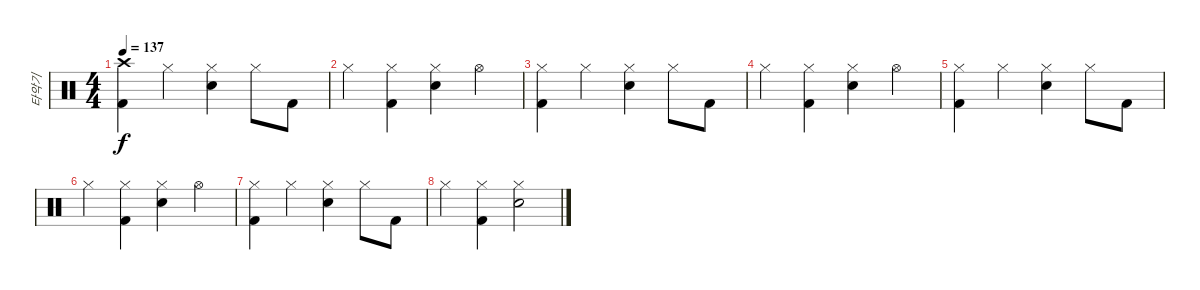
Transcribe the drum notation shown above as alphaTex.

\track ("타악기" "타악기") {instrument percussion}
\staff {score}
\articulation defaults
\ts (4 4)
\tempo 137
\clef neutral
\ks c
("Crash high (hit)" "Kick (hit) 2").4{dy f} "Hi-Hat (closed)".4 ("Hi-Hat (closed)" "Electric Snare (hit)").4 "Hi-Hat (closed)".8 "Kick (hit) 2".8 |
"Hi-Hat (closed)".4 ("Hi-Hat (closed)" "Kick (hit) 2").4 ("Hi-Hat (closed)" "Electric Snare (hit)").4 "Hi-Hat (open)".4 |
("Hi-Hat (closed)" "Kick (hit) 2").4 "Hi-Hat (closed)".4 ("Hi-Hat (closed)" "Electric Snare (hit)").4 "Hi-Hat (closed)".8 "Kick (hit) 2".8 |
"Hi-Hat (closed)".4 ("Hi-Hat (closed)" "Kick (hit) 2").4 ("Hi-Hat (closed)" "Electric Snare (hit)").4 "Hi-Hat (open)".4 |
("Hi-Hat (closed)" "Kick (hit) 2").4 "Hi-Hat (closed)".4 ("Hi-Hat (closed)" "Electric Snare (hit)").4 "Hi-Hat (closed)".8 "Kick (hit) 2".8 |
"Hi-Hat (closed)".4 ("Hi-Hat (closed)" "Kick (hit) 2").4 ("Hi-Hat (closed)" "Electric Snare (hit)").4 "Hi-Hat (open)".4 |
("Hi-Hat (closed)" "Kick (hit) 2").4 "Hi-Hat (closed)".4 ("Hi-Hat (closed)" "Electric Snare (hit)").4 "Hi-Hat (closed)".8 "Kick (hit) 2".8 |
"Hi-Hat (closed)".4 ("Hi-Hat (closed)" "Kick (hit) 2").4 ("Hi-Hat (closed)" "Electric Snare (hit)").2
